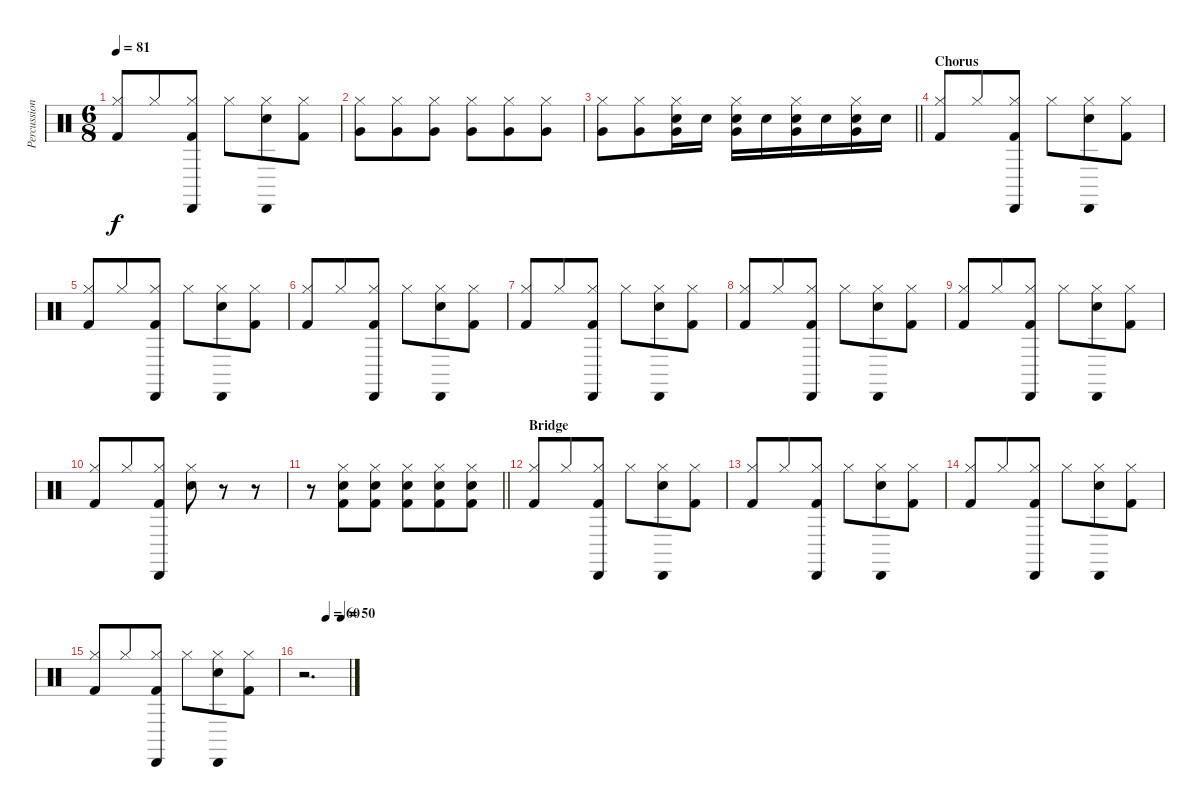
\track ("Percussion" "Percussion") {instrument percussion}
\staff {score}
\articulation defaults
\ts (6 8)
\tempo 81
\clef neutral
\ks c
("Hi-Hat (closed)" "Kick (hit) 2").8{dy f} "Hi-Hat (closed)".8 ("Hi-Hat (closed)" "Kick (hit) 2" "Cabasa (hit)").8 "Hi-Hat (closed)".8 ("Hi-Hat (closed)" "Snare (hit) 2" "Cabasa (hit)").8 ("Hi-Hat (closed)" "Kick (hit) 2").8 |
("Hi-Hat (closed)" "Very Low Tom (hit)").8 ("Hi-Hat (closed)" "Very Low Tom (hit)").8 ("Hi-Hat (closed)" "Very Low Tom (hit)").8 ("Hi-Hat (closed)" "Very Low Tom (hit)").8 ("Hi-Hat (closed)" "Very Low Tom (hit)").8 ("Hi-Hat (closed)" "Very Low Tom (hit)").8 |
\barLineRight lightlight
("Hi-Hat (closed)" "Very Low Tom (hit)").8 ("Hi-Hat (closed)" "Very Low Tom (hit)").8 ("Hi-Hat (closed)" "Very Low Tom (hit)" "Snare (hit) 2").16 "Snare (hit) 2".16 ("Hi-Hat (closed)" "Very Low Tom (hit)" "Snare (hit) 2").16 "Snare (hit) 2".16 ("Hi-Hat (closed)" "Very Low Tom (hit)" "Snare (hit) 2").16 "Snare (hit) 2".16 ("Hi-Hat (closed)" "Very Low Tom (hit)" "Snare (hit) 2").16 "Snare (hit) 2".16 |
\section ("" "Chorus")
("Hi-Hat (closed)" "Kick (hit) 2").8 "Hi-Hat (closed)".8 ("Hi-Hat (closed)" "Kick (hit) 2" "Cabasa (hit)").8 "Hi-Hat (closed)".8 ("Hi-Hat (closed)" "Snare (hit) 2" "Cabasa (hit)").8 ("Hi-Hat (closed)" "Kick (hit) 2").8 |
("Hi-Hat (closed)" "Kick (hit) 2").8 "Hi-Hat (closed)".8 ("Hi-Hat (closed)" "Kick (hit) 2" "Cabasa (hit)").8 "Hi-Hat (closed)".8 ("Hi-Hat (closed)" "Snare (hit) 2" "Cabasa (hit)").8 ("Hi-Hat (closed)" "Kick (hit) 2").8 |
("Hi-Hat (closed)" "Kick (hit) 2").8 "Hi-Hat (closed)".8 ("Hi-Hat (closed)" "Kick (hit) 2" "Cabasa (hit)").8 "Hi-Hat (closed)".8 ("Hi-Hat (closed)" "Snare (hit) 2" "Cabasa (hit)").8 ("Hi-Hat (closed)" "Kick (hit) 2").8 |
("Hi-Hat (closed)" "Kick (hit) 2").8 "Hi-Hat (closed)".8 ("Hi-Hat (closed)" "Kick (hit) 2" "Cabasa (hit)").8 "Hi-Hat (closed)".8 ("Hi-Hat (closed)" "Snare (hit) 2" "Cabasa (hit)").8 ("Hi-Hat (closed)" "Kick (hit) 2").8 |
("Hi-Hat (closed)" "Kick (hit) 2").8 "Hi-Hat (closed)".8 ("Hi-Hat (closed)" "Kick (hit) 2" "Cabasa (hit)").8 "Hi-Hat (closed)".8 ("Hi-Hat (closed)" "Snare (hit) 2" "Cabasa (hit)").8 ("Hi-Hat (closed)" "Kick (hit) 2").8 |
("Hi-Hat (closed)" "Kick (hit) 2").8 "Hi-Hat (closed)".8 ("Hi-Hat (closed)" "Kick (hit) 2" "Cabasa (hit)").8 "Hi-Hat (closed)".8 ("Hi-Hat (closed)" "Snare (hit) 2" "Cabasa (hit)").8 ("Hi-Hat (closed)" "Kick (hit) 2").8 |
("Hi-Hat (closed)" "Kick (hit) 2").8 "Hi-Hat (closed)".8 ("Hi-Hat (closed)" "Kick (hit) 2" "Cabasa (hit)").8 ("Hi-Hat (closed)" "Snare (hit) 2").8 r.8 r.8 |
\barLineRight lightlight
r.8 ("Hi-Hat (closed)" "Kick (hit) 2" "Snare (hit) 2").8 ("Hi-Hat (closed)" "Kick (hit) 2" "Snare (hit) 2").8 ("Hi-Hat (closed)" "Kick (hit) 2" "Snare (hit) 2").8 ("Hi-Hat (closed)" "Kick (hit) 2" "Snare (hit) 2").8 ("Hi-Hat (closed)" "Kick (hit) 2" "Snare (hit) 2").8 |
\section ("" "Bridge")
("Hi-Hat (closed)" "Kick (hit) 2").8 "Hi-Hat (closed)".8 ("Hi-Hat (closed)" "Kick (hit) 2" "Cabasa (hit)").8 "Hi-Hat (closed)".8 ("Hi-Hat (closed)" "Snare (hit) 2" "Cabasa (hit)").8 ("Hi-Hat (closed)" "Kick (hit) 2").8 |
("Hi-Hat (closed)" "Kick (hit) 2").8 "Hi-Hat (closed)".8 ("Hi-Hat (closed)" "Kick (hit) 2" "Cabasa (hit)").8 "Hi-Hat (closed)".8 ("Hi-Hat (closed)" "Snare (hit) 2" "Cabasa (hit)").8 ("Hi-Hat (closed)" "Kick (hit) 2").8 |
("Hi-Hat (closed)" "Kick (hit) 2").8 "Hi-Hat (closed)".8 ("Hi-Hat (closed)" "Kick (hit) 2" "Cabasa (hit)").8 "Hi-Hat (closed)".8 ("Hi-Hat (closed)" "Snare (hit) 2" "Cabasa (hit)").8 ("Hi-Hat (closed)" "Kick (hit) 2").8 |
("Hi-Hat (closed)" "Kick (hit) 2").8 "Hi-Hat (closed)".8 ("Hi-Hat (closed)" "Kick (hit) 2" "Cabasa (hit)").8 "Hi-Hat (closed)".8 ("Hi-Hat (closed)" "Snare (hit) 2" "Cabasa (hit)").8 ("Hi-Hat (closed)" "Kick (hit) 2").8 |
\tempo (60 0.5)
\tempo (50 0.8333333333333334)
r.2{d}
